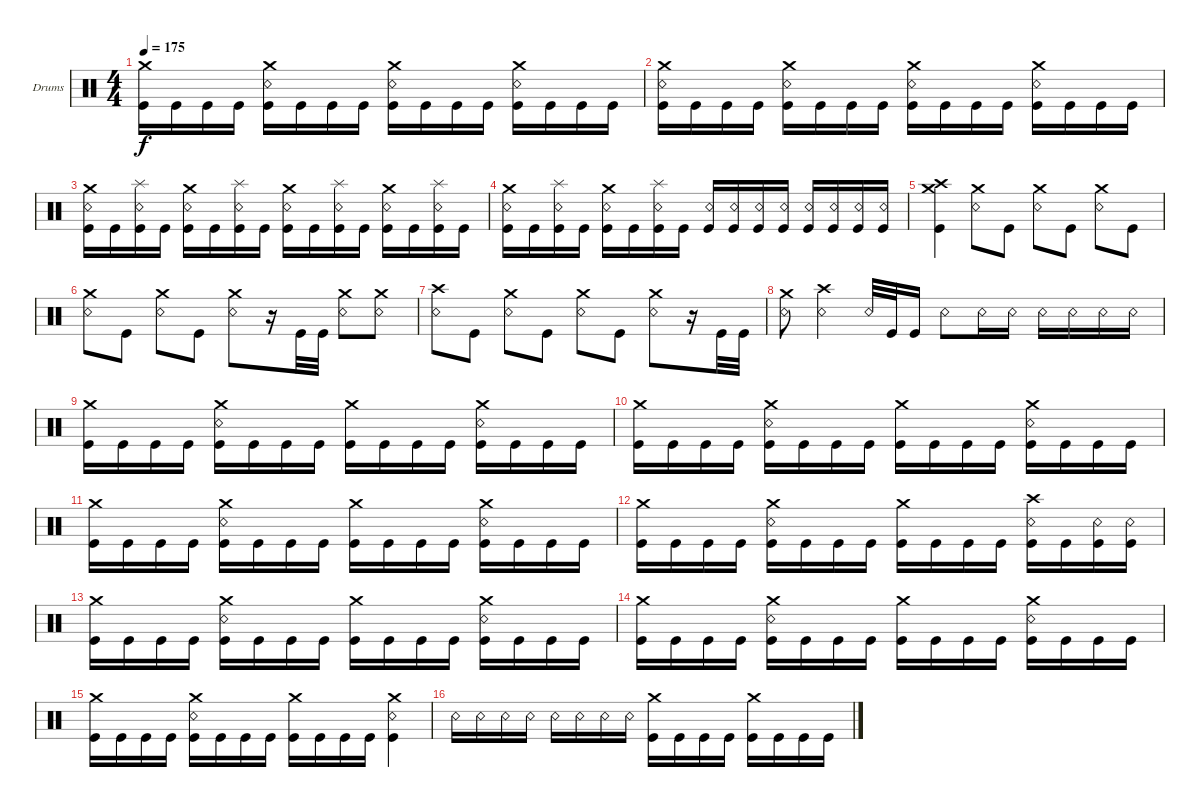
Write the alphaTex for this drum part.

\bracketExtendMode groupsimilarinstruments
\firstSystemTrackNameOrientation horizontal
\otherSystemsTrackNameOrientation horizontal
\track ("Drumkit" "Drums") {instrument percussion}
\staff {score}
\articulation defaults
\ts (4 4)
\tempo 175
\clef neutral
\ks c
("Crash medium (hit)" "Kick (hit)").16{dy f} "Kick (hit)".16 "Kick (hit)".16 "Kick (hit)".16 ("Crash medium (hit)" "Snare (rim shot)" "Kick (hit)").16 "Kick (hit)".16 "Kick (hit)".16 "Kick (hit)".16 ("Crash medium (hit)" "Snare (rim shot)" "Kick (hit)").16 "Kick (hit)".16 "Kick (hit)".16 "Kick (hit)".16 ("Crash medium (hit)" "Snare (rim shot)" "Kick (hit)").16 "Kick (hit)".16 "Kick (hit)".16 "Kick (hit)".16 |
("Crash medium (hit)" "Snare (rim shot)" "Kick (hit)").16 "Kick (hit)".16 "Kick (hit)".16 "Kick (hit)".16 ("Crash medium (hit)" "Snare (rim shot)" "Kick (hit)").16 "Kick (hit)".16 "Kick (hit)".16 "Kick (hit)".16 ("Crash medium (hit)" "Snare (rim shot)" "Kick (hit)").16 "Kick (hit)".16 "Kick (hit)".16 "Kick (hit)".16 ("Crash medium (hit)" "Snare (rim shot)" "Kick (hit)").16 "Kick (hit)".16 "Kick (hit)".16 "Kick (hit)".16 |
("Crash medium (hit)" "Snare (rim shot)" "Kick (hit)").16 "Kick (hit)".16 ("Splash (hit)" "Snare (rim shot)" "Kick (hit)").16 "Kick (hit)".16 ("Crash medium (hit)" "Snare (rim shot)" "Kick (hit)").16 "Kick (hit)".16 ("Splash (hit)" "Snare (rim shot)" "Kick (hit)").16 "Kick (hit)".16 ("Crash medium (hit)" "Snare (rim shot)" "Kick (hit)").16 "Kick (hit)".16 ("Splash (hit)" "Snare (rim shot)" "Kick (hit)").16 "Kick (hit)".16 ("Crash medium (hit)" "Snare (rim shot)" "Kick (hit)").16 "Kick (hit)".16 ("Splash (hit)" "Snare (rim shot)" "Kick (hit)").16 "Kick (hit)".16 |
("Crash medium (hit)" "Snare (rim shot)" "Kick (hit)").16 "Kick (hit)".16 ("Splash (hit)" "Snare (rim shot)" "Kick (hit)").16 "Kick (hit)".16 ("Crash medium (hit)" "Snare (rim shot)" "Kick (hit)").16 "Kick (hit)".16 ("Splash (hit)" "Snare (rim shot)" "Kick (hit)").16 "Kick (hit)".16 ("Snare (rim shot)" "Kick (hit)").16 ("Snare (rim shot)" "Kick (hit)").16 ("Snare (rim shot)" "Kick (hit)").16 ("Snare (rim shot)" "Kick (hit)").16 ("Snare (rim shot)" "Kick (hit)").16 ("Snare (rim shot)" "Kick (hit)").16 ("Snare (rim shot)" "Kick (hit)").16 ("Snare (rim shot)" "Kick (hit)").16 |
("Crash high (hit)" "Crash medium (hit)" "Kick (hit)").4 ("Crash medium (hit)" "Snare (rim shot)").8 "Kick (hit)".8 ("Crash medium (hit)" "Snare (rim shot)").8 "Kick (hit)".8 ("Crash medium (hit)" "Snare (rim shot)").8 "Kick (hit)".8 |
("Crash medium (hit)" "Snare (rim shot)").8 "Kick (hit)".8 ("Crash medium (hit)" "Snare (rim shot)").8 "Kick (hit)".8 ("Crash medium (hit)" "Snare (rim shot)").8 r.16 "Kick (hit)".32 "Kick (hit)".32 ("Crash medium (hit)" "Snare (rim shot)").8 ("Crash medium (hit)" "Snare (rim shot)").8 |
("Crash high (hit)" "Snare (rim shot)").8 "Kick (hit)".8 ("Crash medium (hit)" "Snare (rim shot)").8 "Kick (hit)".8 ("Crash medium (hit)" "Snare (rim shot)").8 "Kick (hit)".8 ("Crash medium (hit)" "Snare (rim shot)").8 r.16 "Kick (hit)".32 "Kick (hit)".32 |
("Crash medium (hit)" "Snare (rim shot)").8 ("Crash high (hit)" "Snare (rim shot)").4 "Snare (rim shot)".32 "Kick (hit)".32 "Kick (hit)".16 "Snare (rim shot)".8 "Snare (rim shot)".16 "Snare (rim shot)".16 "Snare (rim shot)".16 "Snare (rim shot)".16 "Snare (rim shot)".16 "Snare (rim shot)".16 |
("Crash medium (hit)" "Kick (hit)").16 "Kick (hit)".16 "Kick (hit)".16 "Kick (hit)".16 ("Crash medium (hit)" "Snare (rim shot)" "Kick (hit)").16 "Kick (hit)".16 "Kick (hit)".16 "Kick (hit)".16 ("Crash medium (hit)" "Kick (hit)").16 "Kick (hit)".16 "Kick (hit)".16 "Kick (hit)".16 ("Crash medium (hit)" "Snare (rim shot)" "Kick (hit)").16 "Kick (hit)".16 "Kick (hit)".16 "Kick (hit)".16 |
("Crash medium (hit)" "Kick (hit)").16 "Kick (hit)".16 "Kick (hit)".16 "Kick (hit)".16 ("Crash medium (hit)" "Snare (rim shot)" "Kick (hit)").16 "Kick (hit)".16 "Kick (hit)".16 "Kick (hit)".16 ("Crash medium (hit)" "Kick (hit)").16 "Kick (hit)".16 "Kick (hit)".16 "Kick (hit)".16 ("Crash medium (hit)" "Snare (rim shot)" "Kick (hit)").16 "Kick (hit)".16 "Kick (hit)".16 "Kick (hit)".16 |
("Crash medium (hit)" "Kick (hit)").16 "Kick (hit)".16 "Kick (hit)".16 "Kick (hit)".16 ("Crash medium (hit)" "Snare (rim shot)" "Kick (hit)").16 "Kick (hit)".16 "Kick (hit)".16 "Kick (hit)".16 ("Crash medium (hit)" "Kick (hit)").16 "Kick (hit)".16 "Kick (hit)".16 "Kick (hit)".16 ("Crash medium (hit)" "Snare (rim shot)" "Kick (hit)").16 "Kick (hit)".16 "Kick (hit)".16 "Kick (hit)".16 |
("Crash medium (hit)" "Kick (hit)").16 "Kick (hit)".16 "Kick (hit)".16 "Kick (hit)".16 ("Crash medium (hit)" "Snare (rim shot)" "Kick (hit)").16 "Kick (hit)".16 "Kick (hit)".16 "Kick (hit)".16 ("Crash medium (hit)" "Kick (hit)").16 "Kick (hit)".16 "Kick (hit)".16 "Kick (hit)".16 ("Crash high (hit)" "Snare (rim shot)" "Kick (hit)").16 "Kick (hit)".16 ("Snare (rim shot)" "Kick (hit)").16 ("Snare (rim shot)" "Kick (hit)").16 |
("Crash medium (hit)" "Kick (hit)").16 "Kick (hit)".16 "Kick (hit)".16 "Kick (hit)".16 ("Crash medium (hit)" "Snare (rim shot)" "Kick (hit)").16 "Kick (hit)".16 "Kick (hit)".16 "Kick (hit)".16 ("Crash medium (hit)" "Kick (hit)").16 "Kick (hit)".16 "Kick (hit)".16 "Kick (hit)".16 ("Crash medium (hit)" "Snare (rim shot)" "Kick (hit)").16 "Kick (hit)".16 "Kick (hit)".16 "Kick (hit)".16 |
("Crash medium (hit)" "Kick (hit)").16 "Kick (hit)".16 "Kick (hit)".16 "Kick (hit)".16 ("Crash medium (hit)" "Snare (rim shot)" "Kick (hit)").16 "Kick (hit)".16 "Kick (hit)".16 "Kick (hit)".16 ("Crash medium (hit)" "Kick (hit)").16 "Kick (hit)".16 "Kick (hit)".16 "Kick (hit)".16 ("Crash medium (hit)" "Snare (rim shot)" "Kick (hit)").16 "Kick (hit)".16 "Kick (hit)".16 "Kick (hit)".16 |
("Crash medium (hit)" "Kick (hit)").16 "Kick (hit)".16 "Kick (hit)".16 "Kick (hit)".16 ("Crash medium (hit)" "Snare (rim shot)" "Kick (hit)").16 "Kick (hit)".16 "Kick (hit)".16 "Kick (hit)".16 ("Crash medium (hit)" "Kick (hit)").16 "Kick (hit)".16 "Kick (hit)".16 "Kick (hit)".16 ("Crash medium (hit)" "Snare (rim shot)" "Kick (hit)").4 |
"Snare (rim shot)".16 "Snare (rim shot)".16 "Snare (rim shot)".16 "Snare (rim shot)".16 "Snare (rim shot)".16 "Snare (rim shot)".16 "Snare (rim shot)".16 "Snare (rim shot)".16 ("Crash medium (hit)" "Kick (hit)").16 "Kick (hit)".16 "Kick (hit)".16 "Kick (hit)".16 ("Crash medium (hit)" "Kick (hit)").16 "Kick (hit)".16 "Kick (hit)".16 "Kick (hit)".16
